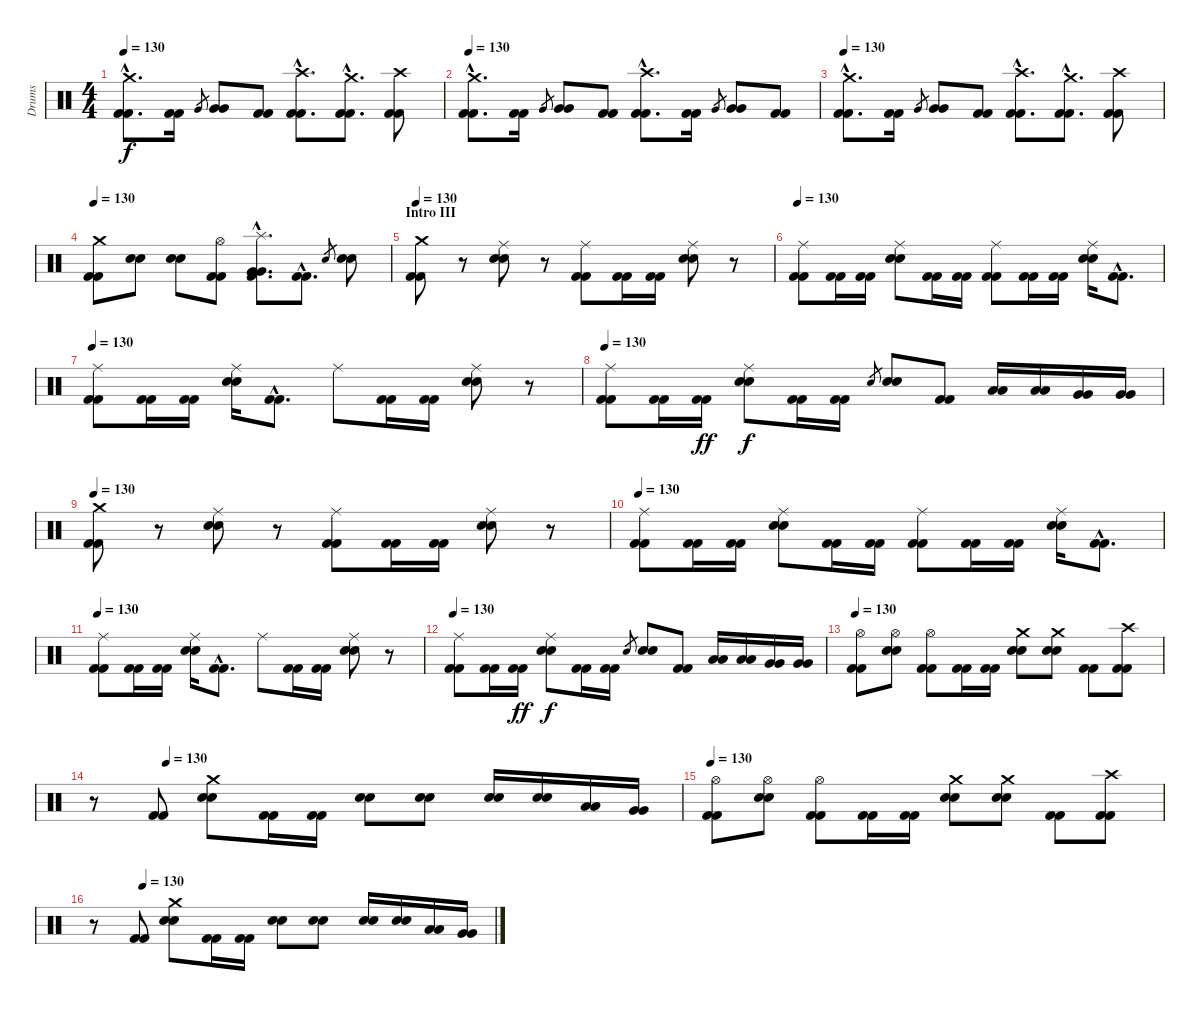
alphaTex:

\track ("Drums" "Drums") {instrument percussion}
\staff {score}
\articulation defaults
\ts (4 4)
\tempo 130
\clef neutral
\ks c
("Crash medium (hit)"{hac} "Kick (hit) 2"{hac} "Kick (hit) 2"{hac}).8{d dy f} ("Kick (hit) 2" "Kick (hit) 2").16 "Very Low Tom (hit)".8{gr} ("Very Low Tom (hit)" "Very Low Tom (hit)").8 ("Kick (hit) 2" "Kick (hit) 2").8 ("Crash high (hit)"{hac} "Kick (hit) 2"{hac} "Kick (hit) 2"{hac}).8{d} ("Crash medium (hit)"{hac} "Kick (hit) 2"{hac} "Kick (hit) 2"{hac}).8{d} ("Crash high (hit)" "Kick (hit) 2" "Kick (hit) 2").8 |
\tempo 130
("Crash medium (hit)"{hac} "Kick (hit) 2"{hac} "Kick (hit) 2"{hac}).8{d} ("Kick (hit) 2" "Kick (hit) 2").16 "Very Low Tom (hit)".8{gr} ("Very Low Tom (hit)" "Very Low Tom (hit)").8 ("Kick (hit) 2" "Kick (hit) 2").8 ("Crash high (hit)"{hac} "Kick (hit) 2"{hac} "Kick (hit) 2"{hac}).8{d} ("Kick (hit) 2" "Kick (hit) 2").16 "Very Low Tom (hit)".8{gr} ("Very Low Tom (hit)" "Very Low Tom (hit)").8 ("Kick (hit) 2" "Kick (hit) 2").8 |
\tempo 130
("Crash medium (hit)"{hac} "Kick (hit) 2"{hac} "Kick (hit) 2"{hac}).8{d} ("Kick (hit) 2" "Kick (hit) 2").16 "Very Low Tom (hit)".8{gr} ("Very Low Tom (hit)" "Very Low Tom (hit)").8 ("Kick (hit) 2" "Kick (hit) 2").8 ("Crash high (hit)"{hac} "Kick (hit) 2"{hac} "Kick (hit) 2"{hac}).8{d} ("Crash medium (hit)"{hac} "Kick (hit) 2"{hac} "Kick (hit) 2"{hac}).8{d} ("Crash high (hit)" "Kick (hit) 2" "Kick (hit) 2").8 |
\tempo 130
("Crash medium (hit)" "Kick (hit) 2" "Kick (hit) 2").8 ("Snare (hit) 2" "Snare (hit) 2").8 ("Snare (hit) 2" "Snare (hit) 2").8 ("Hi-Hat (open)" "Kick (hit) 2" "Kick (hit) 2").8 ("Splash (hit)"{hac} "Very Low Tom (hit)"{hac} "Very Low Tom (hit)"{hac} "Kick (hit) 2"{hac}).8{d} ("Kick (hit) 2"{hac} "Kick (hit) 2"{hac}).8{d} "Snare (hit) 2".8{gr} ("Snare (hit) 2" "Snare (hit) 2").8 |
\section ("" "Intro III")
\tempo 130
("Crash medium (hit)" "Kick (hit) 2" "Kick (hit) 2").8 r.8 ("Ride (middle)" "Snare (hit) 2" "Snare (hit) 2").8 r.8 ("Ride (middle)" "Kick (hit) 2" "Kick (hit) 2").8 ("Kick (hit) 2" "Kick (hit) 2").16 ("Kick (hit) 2" "Kick (hit) 2").16 ("Ride (middle)" "Snare (hit) 2" "Snare (hit) 2").8 r.8 |
\tempo 130
("Ride (middle)" "Kick (hit) 2" "Kick (hit) 2").8 ("Kick (hit) 2" "Kick (hit) 2").16 ("Kick (hit) 2" "Kick (hit) 2").16 ("Ride (middle)" "Snare (hit) 2" "Snare (hit) 2").8 ("Kick (hit) 2" "Kick (hit) 2").16 ("Kick (hit) 2" "Kick (hit) 2").16 ("Ride (middle)" "Kick (hit) 2" "Kick (hit) 2").8 ("Kick (hit) 2" "Kick (hit) 2").16 ("Kick (hit) 2" "Kick (hit) 2").16 ("Ride (middle)" "Snare (hit) 2" "Snare (hit) 2").16 ("Kick (hit) 2"{hac} "Kick (hit) 2"{hac}).8{d} |
\tempo 130
("Ride (middle)" "Kick (hit) 2" "Kick (hit) 2").8 ("Kick (hit) 2" "Kick (hit) 2").16 ("Kick (hit) 2" "Kick (hit) 2").16 ("Ride (middle)" "Snare (hit) 2" "Snare (hit) 2").16 ("Kick (hit) 2"{hac} "Kick (hit) 2"{hac}).8{d} "Ride (middle)".8 ("Kick (hit) 2" "Kick (hit) 2").16 ("Kick (hit) 2" "Kick (hit) 2").16 ("Ride (middle)" "Snare (hit) 2" "Snare (hit) 2").8 r.8 |
\tempo 130
("Ride (middle)" "Kick (hit) 2" "Kick (hit) 2").8 ("Kick (hit) 2" "Kick (hit) 2").16 ("Kick (hit) 2" "Kick (hit) 2").16{dy ff} ("Ride (middle)" "Snare (hit) 2" "Snare (hit) 2").8{dy f} ("Kick (hit) 2" "Kick (hit) 2").16 ("Kick (hit) 2" "Kick (hit) 2").16 "Snare (hit) 2".8{gr} ("Snare (hit) 2" "Snare (hit) 2").8 ("Kick (hit) 2" "Kick (hit) 2").8 ("Low Tom (hit)" "Low Tom (hit)").16 ("Low Tom (hit)" "Low Tom (hit)").16 ("Very Low Tom (hit)" "Very Low Tom (hit)").16 ("Very Low Tom (hit)" "Very Low Tom (hit)").16 |
\tempo 130
("Crash medium (hit)" "Kick (hit) 2" "Kick (hit) 2").8 r.8 ("Ride (middle)" "Snare (hit) 2" "Snare (hit) 2").8 r.8 ("Ride (middle)" "Kick (hit) 2" "Kick (hit) 2").8 ("Kick (hit) 2" "Kick (hit) 2").16 ("Kick (hit) 2" "Kick (hit) 2").16 ("Ride (middle)" "Snare (hit) 2" "Snare (hit) 2").8 r.8 |
\tempo 130
("Ride (middle)" "Kick (hit) 2" "Kick (hit) 2").8 ("Kick (hit) 2" "Kick (hit) 2").16 ("Kick (hit) 2" "Kick (hit) 2").16 ("Ride (middle)" "Snare (hit) 2" "Snare (hit) 2").8 ("Kick (hit) 2" "Kick (hit) 2").16 ("Kick (hit) 2" "Kick (hit) 2").16 ("Ride (middle)" "Kick (hit) 2" "Kick (hit) 2").8 ("Kick (hit) 2" "Kick (hit) 2").16 ("Kick (hit) 2" "Kick (hit) 2").16 ("Ride (middle)" "Snare (hit) 2" "Snare (hit) 2").16 ("Kick (hit) 2"{hac} "Kick (hit) 2"{hac}).8{d} |
\tempo 130
("Ride (middle)" "Kick (hit) 2" "Kick (hit) 2").8 ("Kick (hit) 2" "Kick (hit) 2").16 ("Kick (hit) 2" "Kick (hit) 2").16 ("Ride (middle)" "Snare (hit) 2" "Snare (hit) 2").16 ("Kick (hit) 2"{hac} "Kick (hit) 2"{hac}).8{d} "Ride (middle)".8 ("Kick (hit) 2" "Kick (hit) 2").16 ("Kick (hit) 2" "Kick (hit) 2").16 ("Ride (middle)" "Snare (hit) 2" "Snare (hit) 2").8 r.8 |
\tempo 130
("Ride (middle)" "Kick (hit) 2" "Kick (hit) 2").8 ("Kick (hit) 2" "Kick (hit) 2").16 ("Kick (hit) 2" "Kick (hit) 2").16{dy ff} ("Ride (middle)" "Snare (hit) 2" "Snare (hit) 2").8{dy f} ("Kick (hit) 2" "Kick (hit) 2").16 ("Kick (hit) 2" "Kick (hit) 2").16 "Snare (hit) 2".8{gr} ("Snare (hit) 2" "Snare (hit) 2").8 ("Kick (hit) 2" "Kick (hit) 2").8 ("Low Tom (hit)" "Low Tom (hit)").16 ("Low Tom (hit)" "Low Tom (hit)").16 ("Very Low Tom (hit)" "Very Low Tom (hit)").16 ("Very Low Tom (hit)" "Very Low Tom (hit)").16 |
\section ("" "")
\tempo 130
("Hi-Hat (open)" "Kick (hit) 2" "Kick (hit) 2").8 ("Hi-Hat (open)" "Snare (hit) 2" "Snare (hit) 2").8 ("Hi-Hat (open)" "Kick (hit) 2" "Kick (hit) 2").8 ("Kick (hit) 2" "Kick (hit) 2").16 ("Kick (hit) 2" "Kick (hit) 2").16 ("Crash medium (hit)" "Snare (hit) 2" "Snare (hit) 2").8 ("Crash medium (hit)" "Snare (hit) 2" "Snare (hit) 2").8 ("Kick (hit) 2" "Kick (hit) 2").8 ("Crash high (hit)" "Kick (hit) 2" "Kick (hit) 2").8 |
\tempo (130 0.125)
r.8 ("Kick (hit) 2" "Kick (hit) 2").8 ("Crash medium (hit)" "Snare (hit) 2" "Snare (hit) 2").8 ("Kick (hit) 2" "Kick (hit) 2").16 ("Kick (hit) 2" "Kick (hit) 2").16 ("Snare (hit) 2" "Snare (hit) 2").8 ("Snare (hit) 2" "Snare (hit) 2").8 ("Snare (hit) 2" "Snare (hit) 2").16 ("Snare (hit) 2" "Snare (hit) 2").16 ("Low Tom (hit)" "Low Tom (hit)").16 ("Very Low Tom (hit)" "Very Low Tom (hit)").16 |
\tempo 130
("Hi-Hat (open)" "Kick (hit) 2" "Kick (hit) 2").8 ("Hi-Hat (open)" "Snare (hit) 2" "Snare (hit) 2").8 ("Hi-Hat (open)" "Kick (hit) 2" "Kick (hit) 2").8 ("Kick (hit) 2" "Kick (hit) 2").16 ("Kick (hit) 2" "Kick (hit) 2").16 ("Crash medium (hit)" "Snare (hit) 2" "Snare (hit) 2").8 ("Crash medium (hit)" "Snare (hit) 2" "Snare (hit) 2").8 ("Kick (hit) 2" "Kick (hit) 2").8 ("Crash high (hit)" "Kick (hit) 2" "Kick (hit) 2").8 |
\tempo (130 0.125)
r.8 ("Kick (hit) 2" "Kick (hit) 2").8 ("Crash medium (hit)" "Snare (hit) 2" "Snare (hit) 2").8 ("Kick (hit) 2" "Kick (hit) 2").16 ("Kick (hit) 2" "Kick (hit) 2").16 ("Snare (hit) 2" "Snare (hit) 2").8 ("Snare (hit) 2" "Snare (hit) 2").8 ("Snare (hit) 2" "Snare (hit) 2").16 ("Snare (hit) 2" "Snare (hit) 2").16 ("Low Tom (hit)" "Low Tom (hit)").16 ("Very Low Tom (hit)" "Very Low Tom (hit)").16
